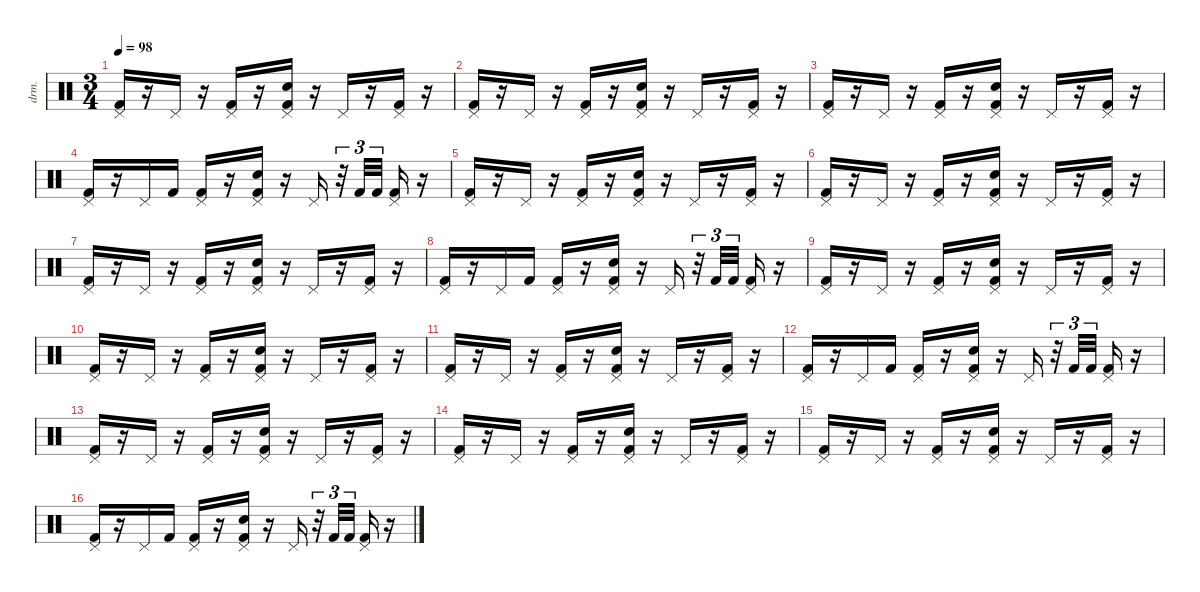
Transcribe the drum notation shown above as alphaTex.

\defaultSystemsLayout 4
\hideDynamics
\bracketExtendMode nobrackets
\otherSystemsTrackNameOrientation horizontal
\track ("Ударные" "drm.") {instrument percussion}
\staff {score}
\articulation defaults
\ts (3 4)
\tempo 98
\clef neutral
\ks c
("Kick (hit) 2" "Pedal Hi-Hat (hit)").16{dy f beam Up} r.16{beam Up} "Pedal Hi-Hat (hit)".16{beam Up} r.16{beam Up} ("Kick (hit) 2" "Pedal Hi-Hat (hit)").16{beam Up} r.16{beam Up} ("Snare (hit) 2" "Kick (hit) 2" "Pedal Hi-Hat (hit)").16{beam Up} r.16{beam Up} "Pedal Hi-Hat (hit)".16{beam Up} r.16{beam Up} ("Kick (hit) 2" "Pedal Hi-Hat (hit)").16{beam Up} r.16{beam Up} |
("Kick (hit) 2" "Pedal Hi-Hat (hit)").16{beam Up} r.16{beam Up} "Pedal Hi-Hat (hit)".16{beam Up} r.16{beam Up} ("Kick (hit) 2" "Pedal Hi-Hat (hit)").16{beam Up} r.16{beam Up} ("Snare (hit) 2" "Kick (hit) 2" "Pedal Hi-Hat (hit)").16{beam Up} r.16{beam Up} "Pedal Hi-Hat (hit)".16{beam Up} r.16{beam Up} ("Kick (hit) 2" "Pedal Hi-Hat (hit)").16{beam Up} r.16{beam Up} |
("Kick (hit) 2" "Pedal Hi-Hat (hit)").16{beam Up} r.16{beam Up} "Pedal Hi-Hat (hit)".16{beam Up} r.16{beam Up} ("Kick (hit) 2" "Pedal Hi-Hat (hit)").16{beam Up} r.16{beam Up} ("Snare (hit) 2" "Kick (hit) 2" "Pedal Hi-Hat (hit)").16{beam Up} r.16{beam Up} "Pedal Hi-Hat (hit)".16{beam Up} r.16{beam Up} ("Kick (hit) 2" "Pedal Hi-Hat (hit)").16{beam Up} r.16{beam Up} |
("Kick (hit) 2" "Pedal Hi-Hat (hit)").16{beam Up} r.16{beam Up} "Pedal Hi-Hat (hit)".16{beam Up} "Kick (hit) 2".16{dy mf beam Up} ("Kick (hit) 2" "Pedal Hi-Hat (hit)").16{dy f beam Up} r.16{beam Up} ("Snare (hit) 2" "Kick (hit) 2" "Pedal Hi-Hat (hit)").16{beam Up} r.16{beam Up} "Pedal Hi-Hat (hit)".16{dy mf beam Up} r.32{tu (3 2) beam Up} "Kick (hit) 2".32{tu (3 2) beam Up} "Kick (hit) 2".32{tu (3 2) beam Up} ("Kick (hit) 2" "Pedal Hi-Hat (hit)").16{beam Up} r.16{beam Up} |
("Kick (hit) 2" "Pedal Hi-Hat (hit)").16{dy f beam Up} r.16{beam Up} "Pedal Hi-Hat (hit)".16{beam Up} r.16{beam Up} ("Kick (hit) 2" "Pedal Hi-Hat (hit)").16{beam Up} r.16{beam Up} ("Snare (hit) 2" "Kick (hit) 2" "Pedal Hi-Hat (hit)").16{beam Up} r.16{beam Up} "Pedal Hi-Hat (hit)".16{beam Up} r.16{beam Up} ("Kick (hit) 2" "Pedal Hi-Hat (hit)").16{beam Up} r.16{beam Up} |
("Kick (hit) 2" "Pedal Hi-Hat (hit)").16{beam Up} r.16{beam Up} "Pedal Hi-Hat (hit)".16{beam Up} r.16{beam Up} ("Kick (hit) 2" "Pedal Hi-Hat (hit)").16{beam Up} r.16{beam Up} ("Snare (hit) 2" "Kick (hit) 2" "Pedal Hi-Hat (hit)").16{beam Up} r.16{beam Up} "Pedal Hi-Hat (hit)".16{beam Up} r.16{beam Up} ("Kick (hit) 2" "Pedal Hi-Hat (hit)").16{beam Up} r.16{beam Up} |
("Kick (hit) 2" "Pedal Hi-Hat (hit)").16{beam Up} r.16{beam Up} "Pedal Hi-Hat (hit)".16{beam Up} r.16{beam Up} ("Kick (hit) 2" "Pedal Hi-Hat (hit)").16{beam Up} r.16{beam Up} ("Snare (hit) 2" "Kick (hit) 2" "Pedal Hi-Hat (hit)").16{beam Up} r.16{beam Up} "Pedal Hi-Hat (hit)".16{beam Up} r.16{beam Up} ("Kick (hit) 2" "Pedal Hi-Hat (hit)").16{beam Up} r.16{beam Up} |
("Kick (hit) 2" "Pedal Hi-Hat (hit)").16{beam Up} r.16{beam Up} "Pedal Hi-Hat (hit)".16{beam Up} "Kick (hit) 2".16{dy mf beam Up} ("Kick (hit) 2" "Pedal Hi-Hat (hit)").16{dy f beam Up} r.16{beam Up} ("Snare (hit) 2" "Kick (hit) 2" "Pedal Hi-Hat (hit)").16{beam Up} r.16{beam Up} "Pedal Hi-Hat (hit)".16{dy mf beam Up} r.32{tu (3 2) beam Up} "Kick (hit) 2".32{tu (3 2) beam Up} "Kick (hit) 2".32{tu (3 2) beam Up} ("Kick (hit) 2" "Pedal Hi-Hat (hit)").16{beam Up} r.16{beam Up} |
("Kick (hit) 2" "Pedal Hi-Hat (hit)").16{dy f beam Up} r.16{beam Up} "Pedal Hi-Hat (hit)".16{beam Up} r.16{beam Up} ("Kick (hit) 2" "Pedal Hi-Hat (hit)").16{beam Up} r.16{beam Up} ("Snare (hit) 2" "Kick (hit) 2" "Pedal Hi-Hat (hit)").16{beam Up} r.16{beam Up} "Pedal Hi-Hat (hit)".16{beam Up} r.16{beam Up} ("Kick (hit) 2" "Pedal Hi-Hat (hit)").16{beam Up} r.16{beam Up} |
("Kick (hit) 2" "Pedal Hi-Hat (hit)").16{beam Up} r.16{beam Up} "Pedal Hi-Hat (hit)".16{beam Up} r.16{beam Up} ("Kick (hit) 2" "Pedal Hi-Hat (hit)").16{beam Up} r.16{beam Up} ("Snare (hit) 2" "Kick (hit) 2" "Pedal Hi-Hat (hit)").16{beam Up} r.16{beam Up} "Pedal Hi-Hat (hit)".16{beam Up} r.16{beam Up} ("Kick (hit) 2" "Pedal Hi-Hat (hit)").16{beam Up} r.16{beam Up} |
("Kick (hit) 2" "Pedal Hi-Hat (hit)").16{beam Up} r.16{beam Up} "Pedal Hi-Hat (hit)".16{beam Up} r.16{beam Up} ("Kick (hit) 2" "Pedal Hi-Hat (hit)").16{beam Up} r.16{beam Up} ("Snare (hit) 2" "Kick (hit) 2" "Pedal Hi-Hat (hit)").16{beam Up} r.16{beam Up} "Pedal Hi-Hat (hit)".16{beam Up} r.16{beam Up} ("Kick (hit) 2" "Pedal Hi-Hat (hit)").16{beam Up} r.16{beam Up} |
("Kick (hit) 2" "Pedal Hi-Hat (hit)").16{beam Up} r.16{beam Up} "Pedal Hi-Hat (hit)".16{beam Up} "Kick (hit) 2".16{dy mf beam Up} ("Kick (hit) 2" "Pedal Hi-Hat (hit)").16{dy f beam Up} r.16{beam Up} ("Snare (hit) 2" "Kick (hit) 2" "Pedal Hi-Hat (hit)").16{beam Up} r.16{beam Up} "Pedal Hi-Hat (hit)".16{dy mf beam Up} r.32{tu (3 2) beam Up} "Kick (hit) 2".32{tu (3 2) beam Up} "Kick (hit) 2".32{tu (3 2) beam Up} ("Kick (hit) 2" "Pedal Hi-Hat (hit)").16{beam Up} r.16{beam Up} |
("Kick (hit) 2" "Pedal Hi-Hat (hit)").16{dy f beam Up} r.16{beam Up} "Pedal Hi-Hat (hit)".16{beam Up} r.16{beam Up} ("Kick (hit) 2" "Pedal Hi-Hat (hit)").16{beam Up} r.16{beam Up} ("Snare (hit) 2" "Kick (hit) 2" "Pedal Hi-Hat (hit)").16{beam Up} r.16{beam Up} "Pedal Hi-Hat (hit)".16{beam Up} r.16{beam Up} ("Kick (hit) 2" "Pedal Hi-Hat (hit)").16{beam Up} r.16{beam Up} |
("Kick (hit) 2" "Pedal Hi-Hat (hit)").16{beam Up} r.16{beam Up} "Pedal Hi-Hat (hit)".16{beam Up} r.16{beam Up} ("Kick (hit) 2" "Pedal Hi-Hat (hit)").16{beam Up} r.16{beam Up} ("Snare (hit) 2" "Kick (hit) 2" "Pedal Hi-Hat (hit)").16{beam Up} r.16{beam Up} "Pedal Hi-Hat (hit)".16{beam Up} r.16{beam Up} ("Kick (hit) 2" "Pedal Hi-Hat (hit)").16{beam Up} r.16{beam Up} |
("Kick (hit) 2" "Pedal Hi-Hat (hit)").16{beam Up} r.16{beam Up} "Pedal Hi-Hat (hit)".16{beam Up} r.16{beam Up} ("Kick (hit) 2" "Pedal Hi-Hat (hit)").16{beam Up} r.16{beam Up} ("Snare (hit) 2" "Kick (hit) 2" "Pedal Hi-Hat (hit)").16{beam Up} r.16{beam Up} "Pedal Hi-Hat (hit)".16{beam Up} r.16{beam Up} ("Kick (hit) 2" "Pedal Hi-Hat (hit)").16{beam Up} r.16{beam Up} |
("Kick (hit) 2" "Pedal Hi-Hat (hit)").16{beam Up} r.16{beam Up} "Pedal Hi-Hat (hit)".16{beam Up} "Kick (hit) 2".16{dy mf beam Up} ("Kick (hit) 2" "Pedal Hi-Hat (hit)").16{dy f beam Up} r.16{beam Up} ("Snare (hit) 2" "Kick (hit) 2" "Pedal Hi-Hat (hit)").16{beam Up} r.16{beam Up} "Pedal Hi-Hat (hit)".16{dy mf beam Up} r.32{tu (3 2) beam Up} "Kick (hit) 2".32{tu (3 2) beam Up} "Kick (hit) 2".32{tu (3 2) beam Up} ("Kick (hit) 2" "Pedal Hi-Hat (hit)").16{beam Up} r.16{beam Up}
